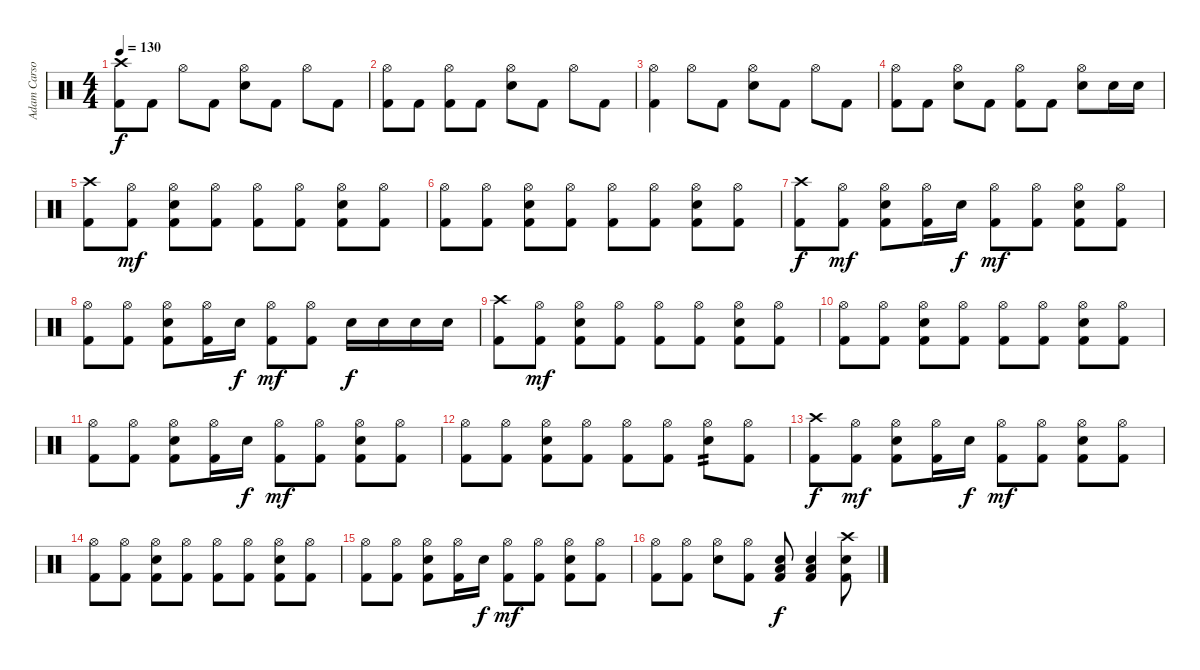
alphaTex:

\track ("Adam Carson" "Adam Carso") {instrument percussion}
\staff {score}
\articulation defaults
\ts (4 4)
\tempo 130
\clef neutral
\ks c
("Crash high (hit)" "Kick (hit) 2").8{dy f} "Kick (hit) 2".8 "Hi-Hat (open)".8 "Kick (hit) 2".8 ("Hi-Hat (open)" "Electric Snare (hit)").8 "Kick (hit) 2".8 "Hi-Hat (open)".8 "Kick (hit) 2".8 |
("Hi-Hat (open)" "Kick (hit) 2").8 "Kick (hit) 2".8 ("Hi-Hat (open)" "Kick (hit) 2").8 "Kick (hit) 2".8 ("Hi-Hat (open)" "Electric Snare (hit)").8 "Kick (hit) 2".8 "Hi-Hat (open)".8 "Kick (hit) 2".8 |
("Hi-Hat (open)" "Kick (hit) 2").4 "Hi-Hat (open)".8 "Kick (hit) 2".8 ("Hi-Hat (open)" "Electric Snare (hit)").8 "Kick (hit) 2".8 "Hi-Hat (open)".8 "Kick (hit) 2".8 |
("Hi-Hat (open)" "Kick (hit) 2").8 "Kick (hit) 2".8 ("Hi-Hat (open)" "Electric Snare (hit)").8 "Kick (hit) 2".8 ("Hi-Hat (open)" "Kick (hit) 2").8 "Kick (hit) 2".8 ("Hi-Hat (open)" "Electric Snare (hit)").8 "Electric Snare (hit)".16 "Electric Snare (hit)".16 |
("Crash high (hit)" "Kick (hit) 2").8 ("Hi-Hat (open)" "Kick (hit) 2").8{dy mf} ("Hi-Hat (open)" "Electric Snare (hit)" "Kick (hit) 2").8 ("Hi-Hat (open)" "Kick (hit) 2").8 ("Hi-Hat (open)" "Kick (hit) 2").8 ("Hi-Hat (open)" "Kick (hit) 2").8 ("Hi-Hat (open)" "Electric Snare (hit)" "Kick (hit) 2").8 ("Hi-Hat (open)" "Kick (hit) 2").8 |
("Hi-Hat (open)" "Kick (hit) 2").8 ("Hi-Hat (open)" "Kick (hit) 2").8 ("Hi-Hat (open)" "Electric Snare (hit)" "Kick (hit) 2").8 ("Hi-Hat (open)" "Kick (hit) 2").8 ("Hi-Hat (open)" "Kick (hit) 2").8 ("Hi-Hat (open)" "Kick (hit) 2").8 ("Hi-Hat (open)" "Electric Snare (hit)" "Kick (hit) 2").8 ("Hi-Hat (open)" "Kick (hit) 2").8 |
("Crash high (hit)" "Kick (hit) 2").8{dy f} ("Hi-Hat (open)" "Kick (hit) 2").8{dy mf} ("Hi-Hat (open)" "Electric Snare (hit)" "Kick (hit) 2").8 ("Hi-Hat (open)" "Kick (hit) 2").16 "Electric Snare (hit)".16{dy f} ("Hi-Hat (open)" "Kick (hit) 2").8{dy mf} ("Hi-Hat (open)" "Kick (hit) 2").8 ("Hi-Hat (open)" "Electric Snare (hit)" "Kick (hit) 2").8 ("Hi-Hat (open)" "Kick (hit) 2").8 |
("Hi-Hat (open)" "Kick (hit) 2").8 ("Hi-Hat (open)" "Kick (hit) 2").8 ("Hi-Hat (open)" "Electric Snare (hit)" "Kick (hit) 2").8 ("Hi-Hat (open)" "Kick (hit) 2").16 "Electric Snare (hit)".16{dy f} ("Hi-Hat (open)" "Kick (hit) 2").8{dy mf} ("Hi-Hat (open)" "Kick (hit) 2").8 "Electric Snare (hit)".16{dy f} "Electric Snare (hit)".16 "Electric Snare (hit)".16 "Electric Snare (hit)".16 |
("Crash high (hit)" "Kick (hit) 2").8 ("Hi-Hat (open)" "Kick (hit) 2").8{dy mf} ("Hi-Hat (open)" "Electric Snare (hit)" "Kick (hit) 2").8 ("Hi-Hat (open)" "Kick (hit) 2").8 ("Hi-Hat (open)" "Kick (hit) 2").8 ("Hi-Hat (open)" "Kick (hit) 2").8 ("Hi-Hat (open)" "Electric Snare (hit)" "Kick (hit) 2").8 ("Hi-Hat (open)" "Kick (hit) 2").8 |
("Hi-Hat (open)" "Kick (hit) 2").8 ("Hi-Hat (open)" "Kick (hit) 2").8 ("Hi-Hat (open)" "Electric Snare (hit)" "Kick (hit) 2").8 ("Hi-Hat (open)" "Kick (hit) 2").8 ("Hi-Hat (open)" "Kick (hit) 2").8 ("Hi-Hat (open)" "Kick (hit) 2").8 ("Hi-Hat (open)" "Electric Snare (hit)" "Kick (hit) 2").8 ("Hi-Hat (open)" "Kick (hit) 2").8 |
("Hi-Hat (open)" "Kick (hit) 2").8 ("Hi-Hat (open)" "Kick (hit) 2").8 ("Hi-Hat (open)" "Electric Snare (hit)" "Kick (hit) 2").8 ("Hi-Hat (open)" "Kick (hit) 2").16 "Electric Snare (hit)".16{dy f} ("Hi-Hat (open)" "Kick (hit) 2").8{dy mf} ("Hi-Hat (open)" "Kick (hit) 2").8 ("Hi-Hat (open)" "Electric Snare (hit)" "Kick (hit) 2").8 ("Hi-Hat (open)" "Kick (hit) 2").8 |
("Hi-Hat (open)" "Kick (hit) 2").8 ("Hi-Hat (open)" "Kick (hit) 2").8 ("Hi-Hat (open)" "Electric Snare (hit)" "Kick (hit) 2").8 ("Hi-Hat (open)" "Kick (hit) 2").8 ("Hi-Hat (open)" "Kick (hit) 2").8 ("Hi-Hat (open)" "Kick (hit) 2").8 ("Hi-Hat (open)" "Electric Snare (hit)").8{tp 2} ("Hi-Hat (open)" "Kick (hit) 2").8 |
("Crash high (hit)" "Kick (hit) 2").8{dy f} ("Hi-Hat (open)" "Kick (hit) 2").8{dy mf} ("Hi-Hat (open)" "Electric Snare (hit)" "Kick (hit) 2").8 ("Hi-Hat (open)" "Kick (hit) 2").16 "Electric Snare (hit)".16{dy f} ("Hi-Hat (open)" "Kick (hit) 2").8{dy mf} ("Hi-Hat (open)" "Kick (hit) 2").8 ("Hi-Hat (open)" "Electric Snare (hit)" "Kick (hit) 2").8 ("Hi-Hat (open)" "Kick (hit) 2").8 |
("Hi-Hat (open)" "Kick (hit) 2").8 ("Hi-Hat (open)" "Kick (hit) 2").8 ("Hi-Hat (open)" "Electric Snare (hit)" "Kick (hit) 2").8 ("Hi-Hat (open)" "Kick (hit) 2").8 ("Hi-Hat (open)" "Kick (hit) 2").8 ("Hi-Hat (open)" "Kick (hit) 2").8 ("Hi-Hat (open)" "Electric Snare (hit)" "Kick (hit) 2").8 ("Hi-Hat (open)" "Kick (hit) 2").8 |
("Hi-Hat (open)" "Kick (hit) 2").8 ("Hi-Hat (open)" "Kick (hit) 2").8 ("Hi-Hat (open)" "Electric Snare (hit)" "Kick (hit) 2").8 ("Hi-Hat (open)" "Kick (hit) 2").16 "Electric Snare (hit)".16{dy f} ("Hi-Hat (open)" "Kick (hit) 2").8{dy mf} ("Hi-Hat (open)" "Kick (hit) 2").8 ("Hi-Hat (open)" "Electric Snare (hit)" "Kick (hit) 2").8 ("Hi-Hat (open)" "Kick (hit) 2").8 |
("Hi-Hat (open)" "Kick (hit) 2").8 ("Hi-Hat (open)" "Kick (hit) 2").8 ("Hi-Hat (open)" "Electric Snare (hit)").8 ("Hi-Hat (open)" "Kick (hit) 2").8 ("Electric Snare (hit)" "Low Floor Tom (hit)" "Kick (hit) 2").8{dy f} ("Electric Snare (hit)" "Low Floor Tom (hit)" "Kick (hit) 2").4 ("Crash high (hit)" "Electric Snare (hit)" "Kick (hit) 2").8
